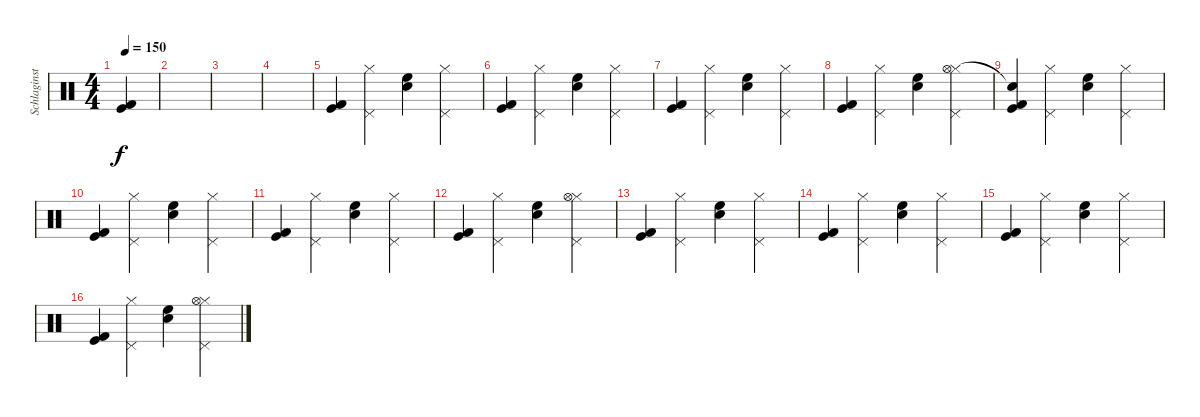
\track ("Schlaginstrumente - Auswahl" "Schlaginst") {instrument percussion}
\staff {score}
\articulation defaults
\ts (4 4)
\tempo 150
\clef neutral
\ks c
("Kick (hit)" "Kick (hit) 2").4{dy f} |
|
|
|
("Kick (hit) 2" "Kick (hit)").4 ("Pedal Hi-Hat (hit)" "Hi-Hat (closed)").4 ("High Floor Tom (hit)" "Snare (hit) 2").4 ("Pedal Hi-Hat (hit)" "Hi-Hat (closed)").4 |
("Kick (hit) 2" "Kick (hit)").4 ("Pedal Hi-Hat (hit)" "Hi-Hat (closed)").4 ("High Floor Tom (hit)" "Snare (hit) 2").4 ("Pedal Hi-Hat (hit)" "Hi-Hat (closed)").4 |
("Kick (hit) 2" "Kick (hit)").4 ("Pedal Hi-Hat (hit)" "Hi-Hat (closed)").4 ("High Floor Tom (hit)" "Snare (hit) 2").4 ("Pedal Hi-Hat (hit)" "Hi-Hat (closed)").4 |
("Kick (hit) 2" "Kick (hit)").4 ("Pedal Hi-Hat (hit)" "Hi-Hat (closed)").4 ("High Floor Tom (hit)" "Snare (hit) 2").4 ("Pedal Hi-Hat (hit)" "Hi-Hat (closed)" "Hi-Hat (open)").4 |
("Kick (hit) 2" "Kick (hit)" "Snare (hit)"{t}).4 ("Pedal Hi-Hat (hit)" "Hi-Hat (closed)").4 ("High Floor Tom (hit)" "Snare (hit) 2").4 ("Pedal Hi-Hat (hit)" "Hi-Hat (closed)").4 |
("Kick (hit) 2" "Kick (hit)").4 ("Pedal Hi-Hat (hit)" "Hi-Hat (closed)").4 ("High Floor Tom (hit)" "Snare (hit) 2").4 ("Pedal Hi-Hat (hit)" "Hi-Hat (closed)").4 |
("Kick (hit) 2" "Kick (hit)").4 ("Pedal Hi-Hat (hit)" "Hi-Hat (closed)").4 ("High Floor Tom (hit)" "Snare (hit) 2").4 ("Pedal Hi-Hat (hit)" "Hi-Hat (closed)").4 |
("Kick (hit) 2" "Kick (hit)").4 ("Pedal Hi-Hat (hit)" "Hi-Hat (closed)").4 ("High Floor Tom (hit)" "Snare (hit) 2").4 ("Pedal Hi-Hat (hit)" "Hi-Hat (closed)" "Hi-Hat (open)").4 |
("Kick (hit) 2" "Kick (hit)").4 ("Pedal Hi-Hat (hit)" "Hi-Hat (closed)").4 ("High Floor Tom (hit)" "Snare (hit) 2").4 ("Pedal Hi-Hat (hit)" "Hi-Hat (closed)").4 |
("Kick (hit) 2" "Kick (hit)").4 ("Pedal Hi-Hat (hit)" "Hi-Hat (closed)").4 ("High Floor Tom (hit)" "Snare (hit) 2").4 ("Pedal Hi-Hat (hit)" "Hi-Hat (closed)").4 |
("Kick (hit) 2" "Kick (hit)").4 ("Pedal Hi-Hat (hit)" "Hi-Hat (closed)").4 ("High Floor Tom (hit)" "Snare (hit) 2").4 ("Pedal Hi-Hat (hit)" "Hi-Hat (closed)").4 |
("Kick (hit) 2" "Kick (hit)").4 ("Pedal Hi-Hat (hit)" "Hi-Hat (closed)").4 ("High Floor Tom (hit)" "Snare (hit) 2").4 ("Pedal Hi-Hat (hit)" "Hi-Hat (closed)" "Hi-Hat (open)").4
